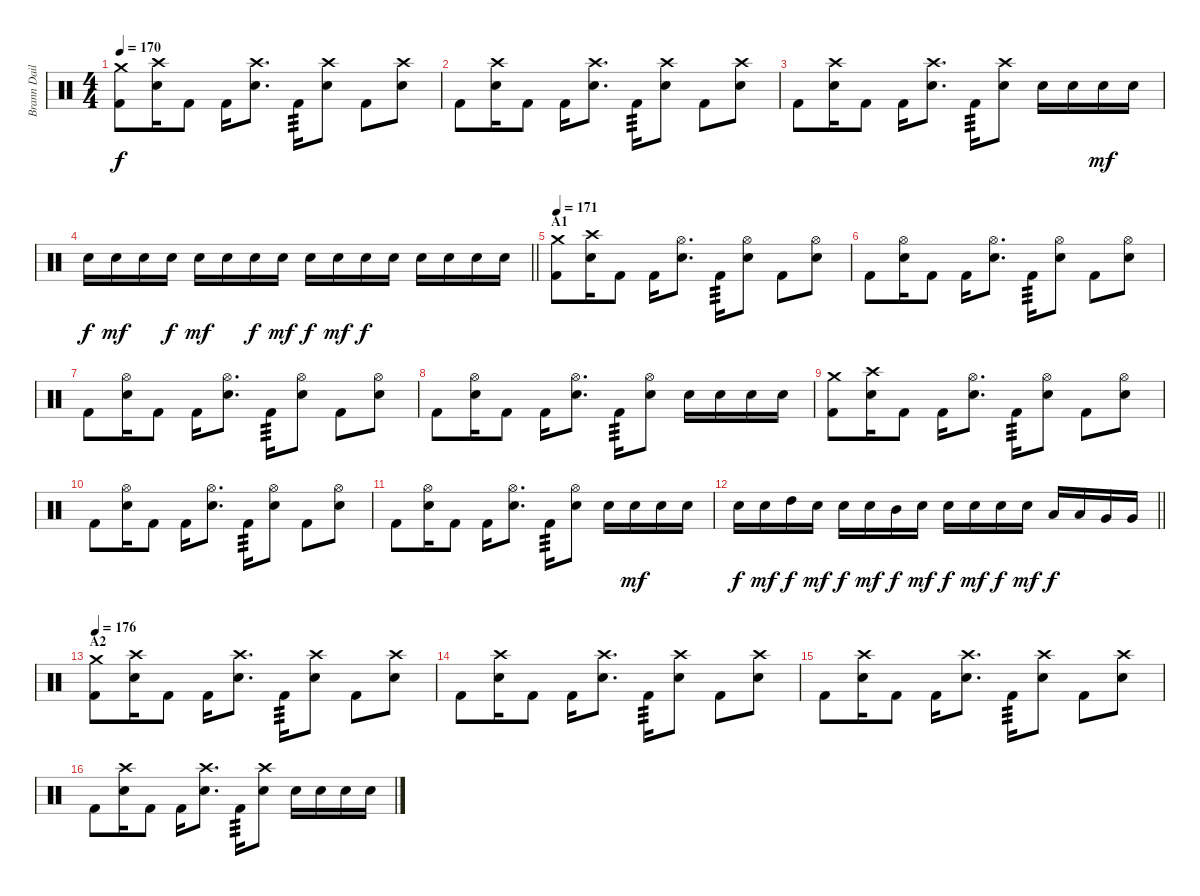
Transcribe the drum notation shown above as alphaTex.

\track ("Brann Dailor" "Brann Dail") {instrument percussion}
\staff {score}
\articulation defaults
\ts (4 4)
\tempo 170
\clef neutral
\ks c
("Crash medium (hit)" "Kick (hit) 2").8{dy f} ("Crash high (hit)" "Snare (hit) 2").16 "Kick (hit) 2".8 "Kick (hit) 2".16 ("Crash high (hit)" "Snare (hit) 2").8{d} "Kick (hit) 2".16{tp 3} ("Crash high (hit)" "Snare (hit) 2").8 "Kick (hit) 2".8 ("Crash high (hit)" "Snare (hit) 2").8 |
"Kick (hit) 2".8 ("Crash high (hit)" "Snare (hit) 2").16 "Kick (hit) 2".8 "Kick (hit) 2".16 ("Crash high (hit)" "Snare (hit) 2").8{d} "Kick (hit) 2".16{tp 3} ("Crash high (hit)" "Snare (hit) 2").8 "Kick (hit) 2".8 ("Crash high (hit)" "Snare (hit) 2").8 |
"Kick (hit) 2".8 ("Crash high (hit)" "Snare (hit) 2").16 "Kick (hit) 2".8 "Kick (hit) 2".16 ("Crash high (hit)" "Snare (hit) 2").8{d} "Kick (hit) 2".16{tp 3} ("Crash high (hit)" "Snare (hit) 2").8 "Snare (hit) 2".16 "Snare (hit) 2".16 "Snare (hit) 2".16{dy mf} "Snare (hit) 2".16 |
\barLineRight lightlight "Snare (hit) 2".16{dy f} "Snare (hit) 2".16{dy mf} "Snare (hit) 2".16 "Snare (hit) 2".16{dy f} "Snare (hit) 2".16{dy mf} "Snare (hit) 2".16 "Snare (hit) 2".16{dy f} "Snare (hit) 2".16{dy mf} "Snare (hit) 2".16{dy f} "Snare (hit) 2".16{dy mf} "Snare (hit) 2".16{dy f} "Snare (hit) 2".16 "Snare (hit) 2".16 "Snare (hit) 2".16 "Snare (hit) 2".16 "Snare (hit) 2".16
|
\section ("" "A1")
\tempo 171
("Crash medium (hit)" "Kick (hit) 2").8 ("Crash high (hit)" "Snare (hit) 2").16 "Kick (hit) 2".8 "Kick (hit) 2".16 ("Hi-Hat (open)" "Snare (hit) 2").8{d} "Kick (hit) 2".16{tp 3} ("Hi-Hat (open)" "Snare (hit) 2").8 "Kick (hit) 2".8 ("Hi-Hat (open)" "Snare (hit) 2").8 |
"Kick (hit) 2".8 ("Hi-Hat (open)" "Snare (hit) 2").16 "Kick (hit) 2".8 "Kick (hit) 2".16 ("Hi-Hat (open)" "Snare (hit) 2").8{d} "Kick (hit) 2".16{tp 3} ("Hi-Hat (open)" "Snare (hit) 2").8 "Kick (hit) 2".8 ("Hi-Hat (open)" "Snare (hit) 2").8 |
"Kick (hit) 2".8 ("Hi-Hat (open)" "Snare (hit) 2").16 "Kick (hit) 2".8 "Kick (hit) 2".16 ("Hi-Hat (open)" "Snare (hit) 2").8{d} "Kick (hit) 2".16{tp 3} ("Hi-Hat (open)" "Snare (hit) 2").8 "Kick (hit) 2".8 ("Hi-Hat (open)" "Snare (hit) 2").8 |
"Kick (hit) 2".8 ("Hi-Hat (open)" "Snare (hit) 2").16 "Kick (hit) 2".8 "Kick (hit) 2".16 ("Hi-Hat (open)" "Snare (hit) 2").8{d} "Kick (hit) 2".16{tp 3} ("Hi-Hat (open)" "Snare (hit) 2").8 "Snare (hit) 2".16 "Snare (hit) 2".16 "Snare (hit) 2".16 "Snare (hit) 2".16 |
("Crash medium (hit)" "Kick (hit) 2").8 ("Crash high (hit)" "Snare (hit) 2").16 "Kick (hit) 2".8 "Kick (hit) 2".16 ("Hi-Hat (open)" "Snare (hit) 2").8{d} "Kick (hit) 2".16{tp 3} ("Hi-Hat (open)" "Snare (hit) 2").8 "Kick (hit) 2".8 ("Hi-Hat (open)" "Snare (hit) 2").8 |
"Kick (hit) 2".8 ("Hi-Hat (open)" "Snare (hit) 2").16 "Kick (hit) 2".8 "Kick (hit) 2".16 ("Hi-Hat (open)" "Snare (hit) 2").8{d} "Kick (hit) 2".16{tp 3} ("Hi-Hat (open)" "Snare (hit) 2").8 "Kick (hit) 2".8 ("Hi-Hat (open)" "Snare (hit) 2").8 |
"Kick (hit) 2".8 ("Hi-Hat (open)" "Snare (hit) 2").16 "Kick (hit) 2".8 "Kick (hit) 2".16 ("Hi-Hat (open)" "Snare (hit) 2").8{d} "Kick (hit) 2".16{tp 3} ("Hi-Hat (open)" "Snare (hit) 2").8 "Snare (hit) 2".16 "Snare (hit) 2".16{dy mf} "Snare (hit) 2".16 "Snare (hit) 2".16 |
\barLineRight lightlight "Snare (hit) 2".16{dy f} "Snare (hit) 2".16{dy mf} "High Tom (hit)".16{dy f} "Snare (hit) 2".16{dy mf} "Snare (hit) 2".16{dy f} "Snare (hit) 2".16{dy mf} "Mid Tom (hit)".16{dy f} "Snare (hit) 2".16{dy mf} "Snare (hit) 2".16{dy f} "Snare (hit) 2".16{dy mf} "Snare (hit) 2".16{dy f} "Snare (hit) 2".16{dy mf} "Low Tom (hit)".16{dy f} "Low Tom (hit)".16 "Very Low Tom (hit)".16 "Very Low Tom (hit)".16
|
\section ("" "A2")
\tempo 176
("Crash medium (hit)" "Kick (hit) 2").8 ("Crash high (hit)" "Snare (hit) 2").16 "Kick (hit) 2".8 "Kick (hit) 2".16 ("Crash high (hit)" "Snare (hit) 2").8{d} "Kick (hit) 2".16{tp 3} ("Crash high (hit)" "Snare (hit) 2").8 "Kick (hit) 2".8 ("Crash high (hit)" "Snare (hit) 2").8 |
"Kick (hit) 2".8 ("Crash high (hit)" "Snare (hit) 2").16 "Kick (hit) 2".8 "Kick (hit) 2".16 ("Crash high (hit)" "Snare (hit) 2").8{d} "Kick (hit) 2".16{tp 3} ("Crash high (hit)" "Snare (hit) 2").8 "Kick (hit) 2".8 ("Crash high (hit)" "Snare (hit) 2").8 |
"Kick (hit) 2".8 ("Crash high (hit)" "Snare (hit) 2").16 "Kick (hit) 2".8 "Kick (hit) 2".16 ("Crash high (hit)" "Snare (hit) 2").8{d} "Kick (hit) 2".16{tp 3} ("Crash high (hit)" "Snare (hit) 2").8 "Kick (hit) 2".8 ("Crash high (hit)" "Snare (hit) 2").8 |
"Kick (hit) 2".8 ("Crash high (hit)" "Snare (hit) 2").16 "Kick (hit) 2".8 "Kick (hit) 2".16 ("Crash high (hit)" "Snare (hit) 2").8{d} "Kick (hit) 2".16{tp 3} ("Crash high (hit)" "Snare (hit) 2").8 "Snare (hit) 2".16 "Snare (hit) 2".16 "Snare (hit) 2".16 "Snare (hit) 2".16
